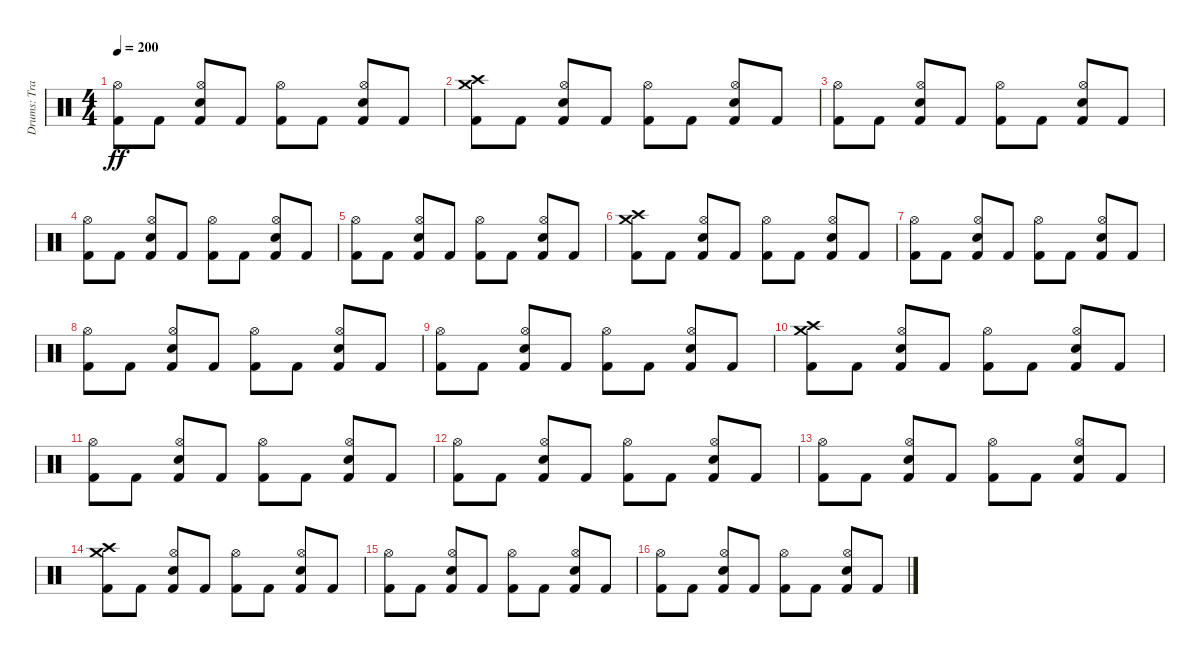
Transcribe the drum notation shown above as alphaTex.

\track ("Drums: Travis Clarke" "Drums: Tra") {instrument percussion}
\staff {score}
\articulation defaults
\ts (4 4)
\tempo 200
\clef neutral
\ks c
("Kick (hit) 2" "Hi-Hat (open)").8{dy ff} "Kick (hit) 2".8 ("Kick (hit) 2" "Snare (hit) 2" "Hi-Hat (open)").8 "Kick (hit) 2".8 ("Kick (hit) 2" "Hi-Hat (open)").8 "Kick (hit) 2".8 ("Kick (hit) 2" "Snare (hit) 2" "Hi-Hat (open)").8 "Kick (hit) 2".8 |
("Kick (hit) 2" "Crash high (hit)" "Crash medium (hit)").8 "Kick (hit) 2".8 ("Kick (hit) 2" "Snare (hit) 2" "Hi-Hat (open)").8 "Kick (hit) 2".8 ("Kick (hit) 2" "Hi-Hat (open)").8 "Kick (hit) 2".8 ("Kick (hit) 2" "Snare (hit) 2" "Hi-Hat (open)").8 "Kick (hit) 2".8 |
("Kick (hit) 2" "Hi-Hat (open)").8 "Kick (hit) 2".8 ("Kick (hit) 2" "Snare (hit) 2" "Hi-Hat (open)").8 "Kick (hit) 2".8 ("Kick (hit) 2" "Hi-Hat (open)").8 "Kick (hit) 2".8 ("Kick (hit) 2" "Snare (hit) 2" "Hi-Hat (open)").8 "Kick (hit) 2".8 |
("Kick (hit) 2" "Hi-Hat (open)").8 "Kick (hit) 2".8 ("Kick (hit) 2" "Snare (hit) 2" "Hi-Hat (open)").8 "Kick (hit) 2".8 ("Kick (hit) 2" "Hi-Hat (open)").8 "Kick (hit) 2".8 ("Kick (hit) 2" "Snare (hit) 2" "Hi-Hat (open)").8 "Kick (hit) 2".8 |
("Kick (hit) 2" "Hi-Hat (open)").8 "Kick (hit) 2".8 ("Kick (hit) 2" "Snare (hit) 2" "Hi-Hat (open)").8 "Kick (hit) 2".8 ("Kick (hit) 2" "Hi-Hat (open)").8 "Kick (hit) 2".8 ("Kick (hit) 2" "Snare (hit) 2" "Hi-Hat (open)").8 "Kick (hit) 2".8 |
("Kick (hit) 2" "Crash high (hit)" "Crash medium (hit)").8 "Kick (hit) 2".8 ("Kick (hit) 2" "Snare (hit) 2" "Hi-Hat (open)").8 "Kick (hit) 2".8 ("Kick (hit) 2" "Hi-Hat (open)").8 "Kick (hit) 2".8 ("Kick (hit) 2" "Snare (hit) 2" "Hi-Hat (open)").8 "Kick (hit) 2".8 |
("Kick (hit) 2" "Hi-Hat (open)").8 "Kick (hit) 2".8 ("Kick (hit) 2" "Snare (hit) 2" "Hi-Hat (open)").8 "Kick (hit) 2".8 ("Kick (hit) 2" "Hi-Hat (open)").8 "Kick (hit) 2".8 ("Kick (hit) 2" "Snare (hit) 2" "Hi-Hat (open)").8 "Kick (hit) 2".8 |
("Kick (hit) 2" "Hi-Hat (open)").8 "Kick (hit) 2".8 ("Kick (hit) 2" "Snare (hit) 2" "Hi-Hat (open)").8 "Kick (hit) 2".8 ("Kick (hit) 2" "Hi-Hat (open)").8 "Kick (hit) 2".8 ("Kick (hit) 2" "Snare (hit) 2" "Hi-Hat (open)").8 "Kick (hit) 2".8 |
("Kick (hit) 2" "Hi-Hat (open)").8 "Kick (hit) 2".8 ("Kick (hit) 2" "Snare (hit) 2" "Hi-Hat (open)").8 "Kick (hit) 2".8 ("Kick (hit) 2" "Hi-Hat (open)").8 "Kick (hit) 2".8 ("Kick (hit) 2" "Snare (hit) 2" "Hi-Hat (open)").8 "Kick (hit) 2".8 |
("Kick (hit) 2" "Crash high (hit)" "Crash medium (hit)").8 "Kick (hit) 2".8 ("Kick (hit) 2" "Snare (hit) 2" "Hi-Hat (open)").8 "Kick (hit) 2".8 ("Kick (hit) 2" "Hi-Hat (open)").8 "Kick (hit) 2".8 ("Kick (hit) 2" "Snare (hit) 2" "Hi-Hat (open)").8 "Kick (hit) 2".8 |
("Kick (hit) 2" "Hi-Hat (open)").8 "Kick (hit) 2".8 ("Kick (hit) 2" "Snare (hit) 2" "Hi-Hat (open)").8 "Kick (hit) 2".8 ("Kick (hit) 2" "Hi-Hat (open)").8 "Kick (hit) 2".8 ("Kick (hit) 2" "Snare (hit) 2" "Hi-Hat (open)").8 "Kick (hit) 2".8 |
("Kick (hit) 2" "Hi-Hat (open)").8 "Kick (hit) 2".8 ("Kick (hit) 2" "Snare (hit) 2" "Hi-Hat (open)").8 "Kick (hit) 2".8 ("Kick (hit) 2" "Hi-Hat (open)").8 "Kick (hit) 2".8 ("Kick (hit) 2" "Snare (hit) 2" "Hi-Hat (open)").8 "Kick (hit) 2".8 |
("Kick (hit) 2" "Hi-Hat (open)").8 "Kick (hit) 2".8 ("Kick (hit) 2" "Snare (hit) 2" "Hi-Hat (open)").8 "Kick (hit) 2".8 ("Kick (hit) 2" "Hi-Hat (open)").8 "Kick (hit) 2".8 ("Kick (hit) 2" "Snare (hit) 2" "Hi-Hat (open)").8 "Kick (hit) 2".8 |
("Kick (hit) 2" "Crash high (hit)" "Crash medium (hit)").8 "Kick (hit) 2".8 ("Kick (hit) 2" "Snare (hit) 2" "Hi-Hat (open)").8 "Kick (hit) 2".8 ("Kick (hit) 2" "Hi-Hat (open)").8 "Kick (hit) 2".8 ("Kick (hit) 2" "Snare (hit) 2" "Hi-Hat (open)").8 "Kick (hit) 2".8 |
("Kick (hit) 2" "Hi-Hat (open)").8 "Kick (hit) 2".8 ("Kick (hit) 2" "Snare (hit) 2" "Hi-Hat (open)").8 "Kick (hit) 2".8 ("Kick (hit) 2" "Hi-Hat (open)").8 "Kick (hit) 2".8 ("Kick (hit) 2" "Snare (hit) 2" "Hi-Hat (open)").8 "Kick (hit) 2".8 |
("Kick (hit) 2" "Hi-Hat (open)").8 "Kick (hit) 2".8 ("Kick (hit) 2" "Snare (hit) 2" "Hi-Hat (open)").8 "Kick (hit) 2".8 ("Kick (hit) 2" "Hi-Hat (open)").8 "Kick (hit) 2".8 ("Kick (hit) 2" "Snare (hit) 2" "Hi-Hat (open)").8 "Kick (hit) 2".8
